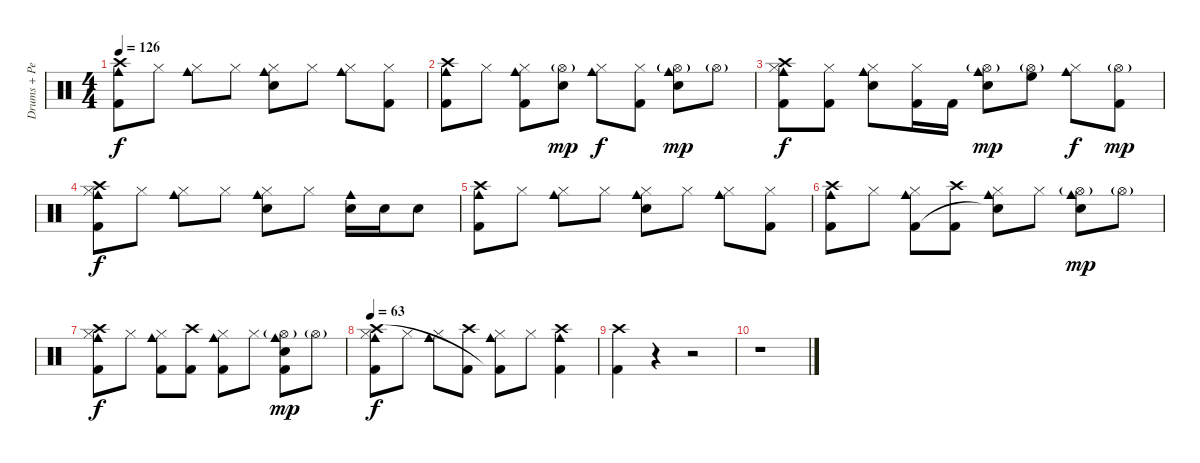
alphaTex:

\track ("Drums + Percussions" "Drums + Pe") {instrument percussion}
\staff {score}
\articulation defaults
\ts (4 4)
\tempo 126
\clef neutral
\ks c
("Crash high (hit)" "Cowbell medium (hit)" "Kick (hit) 2").8{dy f} "Hi-Hat (closed)".8 ("Hi-Hat (closed)" "Cowbell medium (hit)").8 "Hi-Hat (closed)".8 ("Hi-Hat (closed)" "Cowbell medium (hit)" "Electric Snare (hit)").8 "Hi-Hat (closed)".8 ("Hi-Hat (closed)" "Cowbell medium (hit)").8 ("Hi-Hat (closed)" "Kick (hit) 2").8 |
("Crash high (hit)" "Cowbell medium (hit)" "Kick (hit) 2").8 "Hi-Hat (closed)".8 ("Hi-Hat (closed)" "Cowbell medium (hit)" "Kick (hit) 2").8 ("Hi-Hat (open)"{g} "Electric Snare (hit)").8{dy mp} ("Hi-Hat (closed)" "Cowbell medium (hit)").8{dy f} ("Hi-Hat (closed)" "Kick (hit) 2").8 ("Hi-Hat (open)"{g} "Cowbell medium (hit)" "Electric Snare (hit)").8{dy mp} "Hi-Hat (open)"{g}.8 |
("Hi-Hat (closed)" "Cowbell medium (hit)" "Crash high (hit)" "Kick (hit) 2").8{dy f} ("Hi-Hat (closed)" "Kick (hit) 2").8 ("Hi-Hat (closed)" "Cowbell medium (hit)" "Electric Snare (hit)").8 ("Hi-Hat (closed)" "Kick (hit) 2").16 "Kick (hit) 2".16 ("Hi-Hat (open)"{g} "Cowbell medium (hit)" "Electric Snare (hit)").8{dy mp} ("Hi-Hat (open)"{g} "High Floor Tom (hit)").8 ("Hi-Hat (closed)" "Cowbell medium (hit)").8{dy f} ("Hi-Hat (open)"{g} "Kick (hit) 2").8{dy mp} |
("Hi-Hat (closed)" "Cowbell medium (hit)" "Crash high (hit)" "Kick (hit) 2").8{dy f} "Hi-Hat (closed)".8 ("Hi-Hat (closed)" "Cowbell medium (hit)").8 "Hi-Hat (closed)".8 ("Hi-Hat (closed)" "Cowbell medium (hit)" "Electric Snare (hit)").8 "Hi-Hat (closed)".8 ("Cowbell medium (hit)" "Electric Snare (hit)").16 "Electric Snare (hit)".16 "Electric Snare (hit)".8 |
("Crash high (hit)" "Cowbell medium (hit)" "Kick (hit) 2").8 "Hi-Hat (closed)".8 ("Hi-Hat (closed)" "Cowbell medium (hit)").8 "Hi-Hat (closed)".8 ("Hi-Hat (closed)" "Cowbell medium (hit)" "Electric Snare (hit)").8 "Hi-Hat (closed)".8 ("Hi-Hat (closed)" "Cowbell medium (hit)").8 ("Hi-Hat (closed)" "Kick (hit) 2").8 |
("Crash high (hit)" "Cowbell medium (hit)" "Kick (hit) 2").8 "Hi-Hat (closed)".8 ("Hi-Hat (closed)" "Cowbell medium (hit)" "Kick (hit) 2").8 ("Crash high (hit)" "Kick (hit) 2").8 ("Hi-Hat (closed)" "Cowbell medium (hit)" "Snare (hit)"{t}).8 "Hi-Hat (closed)".8 ("Hi-Hat (open)"{g} "Cowbell medium (hit)" "Electric Snare (hit)").8{dy mp} "Hi-Hat (open)"{g}.8 |
("Hi-Hat (closed)" "Cowbell medium (hit)" "Crash high (hit)" "Kick (hit) 2").8{dy f} "Hi-Hat (closed)".8 ("Hi-Hat (closed)" "Cowbell medium (hit)" "Kick (hit) 2").8 ("Crash high (hit)" "Kick (hit) 2").8 ("Hi-Hat (closed)" "Cowbell medium (hit)" "Kick (hit) 2").8 "Hi-Hat (closed)".8 ("Hi-Hat (open)"{g} "Cowbell medium (hit)" "Electric Snare (hit)" "Kick (hit) 2").8{dy mp} "Hi-Hat (open)"{g}.8 |
\tempo 63
("Hi-Hat (closed)" "Cowbell medium (hit)" "Crash high (hit)" "Kick (hit) 2").8{dy f} "Hi-Hat (closed)".8 ("Hi-Hat (closed)" "Cowbell medium (hit)").8 ("Crash high (hit)" "Kick (hit) 2").8 ("Hi-Hat (closed)" "Cowbell medium (hit)" "Kick (hit) 2"{t}).8 "Hi-Hat (closed)".8 ("Crash high (hit)" "Cowbell medium (hit)" "Kick (hit) 2").4 |
("Crash high (hit)" "Kick (hit) 2").4 r.4 r.2 |
r.1
